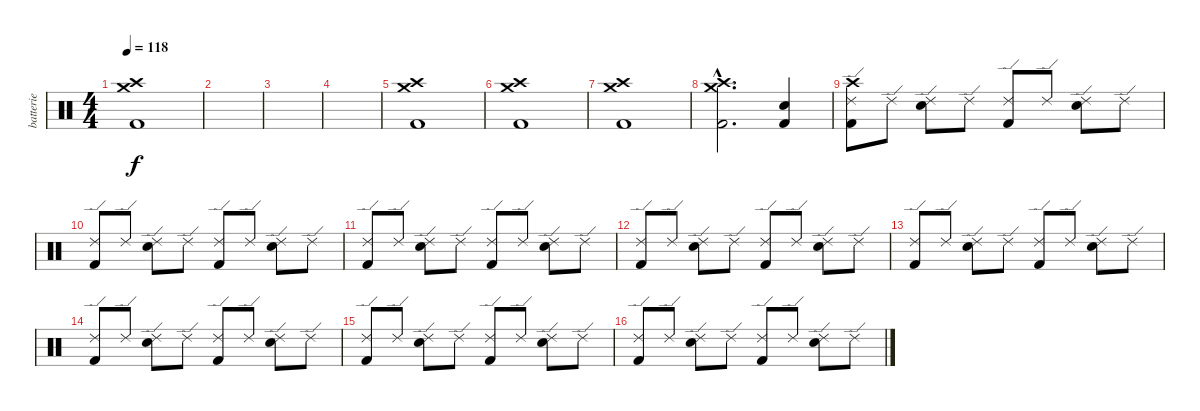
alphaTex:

\track ("batterie" "batterie") {instrument percussion}
\staff {score}
\articulation defaults
\ts (4 4)
\tempo 118
\clef neutral
\ks c
("Crash high (hit)" "Crash medium (hit)" "Kick (hit) 2").1{dy f} |
|
|
|
("Crash high (hit)" "Crash medium (hit)" "Kick (hit) 2").1 |
("Crash high (hit)" "Crash medium (hit)" "Kick (hit) 2").1 |
("Crash high (hit)" "Crash medium (hit)" "Kick (hit) 2").1 |
("Crash high (hit)"{hac} "Crash medium (hit)"{hac} "Kick (hit) 2"{hac}).2{d} ("Electric Snare (hit)" "Kick (hit) 2").4 |
("Crash high (hit)" "Ride (edge) 2" "Kick (hit) 2").8 "Ride (edge) 2".8 ("Ride (edge) 2" "Electric Snare (hit)").8 "Ride (edge) 2".8 ("Ride (edge) 2" "Kick (hit) 2").8 "Ride (edge) 2".8 ("Ride (edge) 2" "Electric Snare (hit)").8 "Ride (edge) 2".8 |
("Ride (edge) 2" "Kick (hit) 2").8 "Ride (edge) 2".8 ("Ride (edge) 2" "Electric Snare (hit)").8 "Ride (edge) 2".8 ("Ride (edge) 2" "Kick (hit) 2").8 "Ride (edge) 2".8 ("Ride (edge) 2" "Electric Snare (hit)").8 "Ride (edge) 2".8 |
("Ride (edge) 2" "Kick (hit) 2").8 "Ride (edge) 2".8 ("Ride (edge) 2" "Electric Snare (hit)").8 "Ride (edge) 2".8 ("Ride (edge) 2" "Kick (hit) 2").8 "Ride (edge) 2".8 ("Ride (edge) 2" "Electric Snare (hit)").8 "Ride (edge) 2".8 |
("Ride (edge) 2" "Kick (hit) 2").8 "Ride (edge) 2".8 ("Ride (edge) 2" "Electric Snare (hit)").8 "Ride (edge) 2".8 ("Ride (edge) 2" "Kick (hit) 2").8 "Ride (edge) 2".8 ("Ride (edge) 2" "Electric Snare (hit)").8 "Ride (edge) 2".8 |
("Ride (edge) 2" "Kick (hit) 2").8 "Ride (edge) 2".8 ("Ride (edge) 2" "Electric Snare (hit)").8 "Ride (edge) 2".8 ("Ride (edge) 2" "Kick (hit) 2").8 "Ride (edge) 2".8 ("Ride (edge) 2" "Electric Snare (hit)").8 "Ride (edge) 2".8 |
("Ride (edge) 2" "Kick (hit) 2").8 "Ride (edge) 2".8 ("Ride (edge) 2" "Electric Snare (hit)").8 "Ride (edge) 2".8 ("Ride (edge) 2" "Kick (hit) 2").8 "Ride (edge) 2".8 ("Ride (edge) 2" "Electric Snare (hit)").8 "Ride (edge) 2".8 |
("Ride (edge) 2" "Kick (hit) 2").8 "Ride (edge) 2".8 ("Ride (edge) 2" "Electric Snare (hit)").8 "Ride (edge) 2".8 ("Ride (edge) 2" "Kick (hit) 2").8 "Ride (edge) 2".8 ("Ride (edge) 2" "Electric Snare (hit)").8 "Ride (edge) 2".8 |
("Ride (edge) 2" "Kick (hit) 2").8 "Ride (edge) 2".8 ("Ride (edge) 2" "Electric Snare (hit)").8 "Ride (edge) 2".8 ("Ride (edge) 2" "Kick (hit) 2").8 "Ride (edge) 2".8 ("Ride (edge) 2" "Electric Snare (hit)").8 "Ride (edge) 2".8
